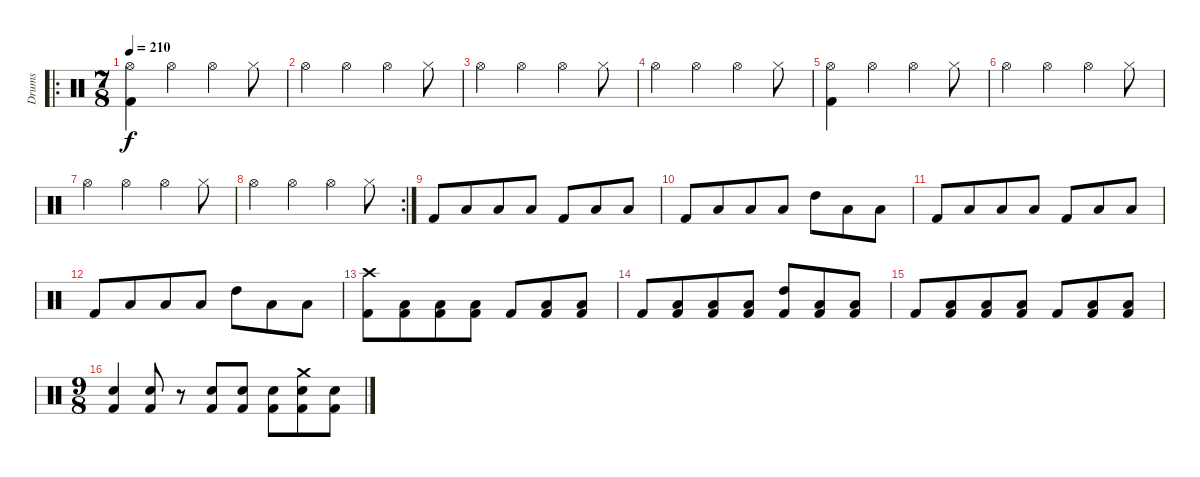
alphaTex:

\track ("Drums" "Drums") {instrument percussion}
\staff {score}
\articulation defaults
\ro
\ts (7 8)
\tempo 210
\clef neutral
\ks c
("Hi-Hat (open)" "Kick (hit) 2").4{dy f} "Hi-Hat (open)".4 "Hi-Hat (open)".4 "Hi-Hat (closed)".8 |
"Hi-Hat (open)".4 "Hi-Hat (open)".4 "Hi-Hat (open)".4 "Hi-Hat (closed)".8 |
"Hi-Hat (open)".4 "Hi-Hat (open)".4 "Hi-Hat (open)".4 "Hi-Hat (closed)".8 |
"Hi-Hat (open)".4 "Hi-Hat (open)".4 "Hi-Hat (open)".4 "Hi-Hat (closed)".8 |
("Hi-Hat (open)" "Kick (hit) 2").4 "Hi-Hat (open)".4 "Hi-Hat (open)".4 "Hi-Hat (closed)".8 |
"Hi-Hat (open)".4 "Hi-Hat (open)".4 "Hi-Hat (open)".4 "Hi-Hat (closed)".8 |
"Hi-Hat (open)".4 "Hi-Hat (open)".4 "Hi-Hat (open)".4 "Hi-Hat (closed)".8 |
\rc 2 "Hi-Hat (open)".4 "Hi-Hat (open)".4 "Hi-Hat (open)".4 "Hi-Hat (closed)".8
|
"Kick (hit) 2".8 "Low Floor Tom (hit)".8 "Low Tom (hit)".8 "Low Floor Tom (hit)".8 "Kick (hit) 2".8 "Low Floor Tom (hit)".8 "Low Tom (hit)".8 |
"Kick (hit) 2".8 "Low Floor Tom (hit)".8 "Low Tom (hit)".8 "Low Floor Tom (hit)".8 "High Tom (hit)".8 "Low Floor Tom (hit)".8 "Low Tom (hit)".8 |
"Kick (hit) 2".8 "Low Floor Tom (hit)".8 "Low Tom (hit)".8 "Low Floor Tom (hit)".8 "Kick (hit) 2".8 "Low Floor Tom (hit)".8 "Low Tom (hit)".8 |
"Kick (hit) 2".8 "Low Floor Tom (hit)".8 "Low Tom (hit)".8 "Low Floor Tom (hit)".8 "High Tom (hit)".8 "Low Floor Tom (hit)".8 "Low Tom (hit)".8 |
("Crash high (hit)" "Kick (hit) 2").8 ("Low Floor Tom (hit)" "Kick (hit) 2").8 ("Low Tom (hit)" "Kick (hit) 2").8 ("Low Floor Tom (hit)" "Kick (hit) 2").8 "Kick (hit) 2".8 ("Low Floor Tom (hit)" "Kick (hit) 2").8 ("Low Tom (hit)" "Kick (hit) 2").8 |
"Kick (hit) 2".8 ("Low Floor Tom (hit)" "Kick (hit) 2").8 ("Low Tom (hit)" "Kick (hit) 2").8 ("Low Floor Tom (hit)" "Kick (hit) 2").8 ("High Tom (hit)" "Kick (hit) 2").8 ("Low Floor Tom (hit)" "Kick (hit) 2").8 ("Low Tom (hit)" "Kick (hit) 2").8 |
"Kick (hit) 2".8 ("Low Floor Tom (hit)" "Kick (hit) 2").8 ("Low Tom (hit)" "Kick (hit) 2").8 ("Low Floor Tom (hit)" "Kick (hit) 2").8 "Kick (hit) 2".8 ("Low Floor Tom (hit)" "Kick (hit) 2").8 ("Low Tom (hit)" "Kick (hit) 2").8 |
\ts (9 8)
("Electric Snare (hit)" "Kick (hit) 2").4 ("Electric Snare (hit)" "Kick (hit) 2").8 r.8 ("Electric Snare (hit)" "Kick (hit) 2").8 ("Electric Snare (hit)" "Kick (hit) 2").8 ("Electric Snare (hit)" "Kick (hit) 2").8 ("Crash medium (hit)" "Electric Snare (hit)" "Kick (hit) 2").8 ("Electric Snare (hit)" "Kick (hit) 2").8
